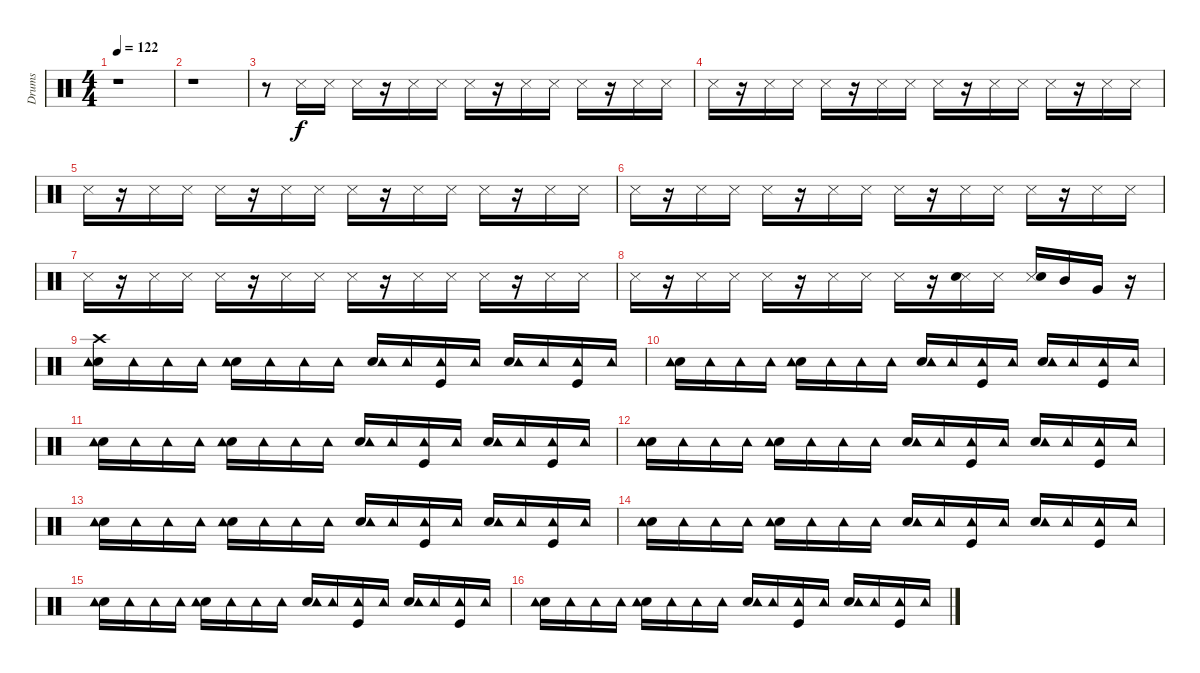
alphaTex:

\track ("Drums               " "Drums     ") {instrument percussion}
\staff {score}
\articulation defaults
\ts (4 4)
\tempo 122
\clef neutral
\ks c
r.1{dy f} |
r.1 |
r.8 "Snare (side stick) 3".16 "Snare (side stick) 3".16 "Snare (side stick) 3".16 r.16 "Snare (side stick) 3".16 "Snare (side stick) 3".16 "Snare (side stick) 3".16 r.16 "Snare (side stick) 3".16 "Snare (side stick) 3".16 "Snare (side stick) 3".16 r.16 "Snare (side stick) 3".16 "Snare (side stick) 3".16 |
"Snare (side stick) 3".16 r.16 "Snare (side stick) 3".16 "Snare (side stick) 3".16 "Snare (side stick) 3".16 r.16 "Snare (side stick) 3".16 "Snare (side stick) 3".16 "Snare (side stick) 3".16 r.16 "Snare (side stick) 3".16 "Snare (side stick) 3".16 "Snare (side stick) 3".16 r.16 "Snare (side stick) 3".16 "Snare (side stick) 3".16 |
"Snare (side stick) 3".16 r.16 "Snare (side stick) 3".16 "Snare (side stick) 3".16 "Snare (side stick) 3".16 r.16 "Snare (side stick) 3".16 "Snare (side stick) 3".16 "Snare (side stick) 3".16 r.16 "Snare (side stick) 3".16 "Snare (side stick) 3".16 "Snare (side stick) 3".16 r.16 "Snare (side stick) 3".16 "Snare (side stick) 3".16 |
"Snare (side stick) 3".16 r.16 "Snare (side stick) 3".16 "Snare (side stick) 3".16 "Snare (side stick) 3".16 r.16 "Snare (side stick) 3".16 "Snare (side stick) 3".16 "Snare (side stick) 3".16 r.16 "Snare (side stick) 3".16 "Snare (side stick) 3".16 "Snare (side stick) 3".16 r.16 "Snare (side stick) 3".16 "Snare (side stick) 3".16 |
"Snare (side stick) 3".16 r.16 "Snare (side stick) 3".16 "Snare (side stick) 3".16 "Snare (side stick) 3".16 r.16 "Snare (side stick) 3".16 "Snare (side stick) 3".16 "Snare (side stick) 3".16 r.16 "Snare (side stick) 3".16 "Snare (side stick) 3".16 "Snare (side stick) 3".16 r.16 "Snare (side stick) 3".16 "Snare (side stick) 3".16 |
"Snare (side stick) 3".16 r.16 "Snare (side stick) 3".16 "Snare (side stick) 3".16 "Snare (side stick) 3".16 r.16 "Snare (side stick) 3".16 "Snare (side stick) 3".16 "Snare (side stick) 3".16 r.16 ("Snare (side stick) 3" "Electric Snare (hit)").16 "Snare (side stick) 3".16 ("Snare (side stick) 3" "Electric Snare (hit)").16 "Mid Tom (hit)".16 "Very Low Tom (hit)".16 r.16 |
("Electric Snare (hit)" "Crash high (hit)" "Tambourine (hit)").16 "Tambourine (hit)".16 "Tambourine (hit)".16 "Tambourine (hit)".16 ("Electric Snare (hit)" "Tambourine (hit)").16 "Tambourine (hit)".16 "Tambourine (hit)".16 "Tambourine (hit)".16 ("Electric Snare (hit)" "Tambourine (hit)").16 "Tambourine (hit)".16 ("Kick (hit)" "Tambourine (hit)").16 "Tambourine (hit)".16 ("Electric Snare (hit)" "Tambourine (hit)").16 "Tambourine (hit)".16 ("Kick (hit)" "Tambourine (hit)").16 "Tambourine (hit)".16 |
("Electric Snare (hit)" "Tambourine (hit)").16 "Tambourine (hit)".16 "Tambourine (hit)".16 "Tambourine (hit)".16 ("Electric Snare (hit)" "Tambourine (hit)").16 "Tambourine (hit)".16 "Tambourine (hit)".16 "Tambourine (hit)".16 ("Electric Snare (hit)" "Tambourine (hit)").16 "Tambourine (hit)".16 ("Kick (hit)" "Tambourine (hit)").16 "Tambourine (hit)".16 ("Electric Snare (hit)" "Tambourine (hit)").16 "Tambourine (hit)".16 ("Kick (hit)" "Tambourine (hit)").16 "Tambourine (hit)".16 |
("Electric Snare (hit)" "Tambourine (hit)").16 "Tambourine (hit)".16 "Tambourine (hit)".16 "Tambourine (hit)".16 ("Electric Snare (hit)" "Tambourine (hit)").16 "Tambourine (hit)".16 "Tambourine (hit)".16 "Tambourine (hit)".16 ("Electric Snare (hit)" "Tambourine (hit)").16 "Tambourine (hit)".16 ("Kick (hit)" "Tambourine (hit)").16 "Tambourine (hit)".16 ("Electric Snare (hit)" "Tambourine (hit)").16 "Tambourine (hit)".16 ("Kick (hit)" "Tambourine (hit)").16 "Tambourine (hit)".16 |
("Electric Snare (hit)" "Tambourine (hit)").16 "Tambourine (hit)".16 "Tambourine (hit)".16 "Tambourine (hit)".16 ("Electric Snare (hit)" "Tambourine (hit)").16 "Tambourine (hit)".16 "Tambourine (hit)".16 "Tambourine (hit)".16 ("Electric Snare (hit)" "Tambourine (hit)").16 "Tambourine (hit)".16 ("Kick (hit)" "Tambourine (hit)").16 "Tambourine (hit)".16 ("Electric Snare (hit)" "Tambourine (hit)").16 "Tambourine (hit)".16 ("Kick (hit)" "Tambourine (hit)").16 "Tambourine (hit)".16 |
("Electric Snare (hit)" "Tambourine (hit)").16 "Tambourine (hit)".16 "Tambourine (hit)".16 "Tambourine (hit)".16 ("Electric Snare (hit)" "Tambourine (hit)").16 "Tambourine (hit)".16 "Tambourine (hit)".16 "Tambourine (hit)".16 ("Electric Snare (hit)" "Tambourine (hit)").16 "Tambourine (hit)".16 ("Kick (hit)" "Tambourine (hit)").16 "Tambourine (hit)".16 ("Electric Snare (hit)" "Tambourine (hit)").16 "Tambourine (hit)".16 ("Kick (hit)" "Tambourine (hit)").16 "Tambourine (hit)".16 |
("Electric Snare (hit)" "Tambourine (hit)").16 "Tambourine (hit)".16 "Tambourine (hit)".16 "Tambourine (hit)".16 ("Electric Snare (hit)" "Tambourine (hit)").16 "Tambourine (hit)".16 "Tambourine (hit)".16 "Tambourine (hit)".16 ("Electric Snare (hit)" "Tambourine (hit)").16 "Tambourine (hit)".16 ("Kick (hit)" "Tambourine (hit)").16 "Tambourine (hit)".16 ("Electric Snare (hit)" "Tambourine (hit)").16 "Tambourine (hit)".16 ("Kick (hit)" "Tambourine (hit)").16 "Tambourine (hit)".16 |
("Electric Snare (hit)" "Tambourine (hit)").16 "Tambourine (hit)".16 "Tambourine (hit)".16 "Tambourine (hit)".16 ("Electric Snare (hit)" "Tambourine (hit)").16 "Tambourine (hit)".16 "Tambourine (hit)".16 "Tambourine (hit)".16 ("Electric Snare (hit)" "Tambourine (hit)").16 "Tambourine (hit)".16 ("Kick (hit)" "Tambourine (hit)").16 "Tambourine (hit)".16 ("Electric Snare (hit)" "Tambourine (hit)").16 "Tambourine (hit)".16 ("Kick (hit)" "Tambourine (hit)").16 "Tambourine (hit)".16 |
("Electric Snare (hit)" "Tambourine (hit)").16 "Tambourine (hit)".16 "Tambourine (hit)".16 "Tambourine (hit)".16 ("Electric Snare (hit)" "Tambourine (hit)").16 "Tambourine (hit)".16 "Tambourine (hit)".16 "Tambourine (hit)".16 ("Electric Snare (hit)" "Tambourine (hit)").16 "Tambourine (hit)".16 ("Kick (hit)" "Tambourine (hit)").16 "Tambourine (hit)".16 ("Electric Snare (hit)" "Tambourine (hit)").16 "Tambourine (hit)".16 ("Kick (hit)" "Tambourine (hit)").16 "Tambourine (hit)".16
